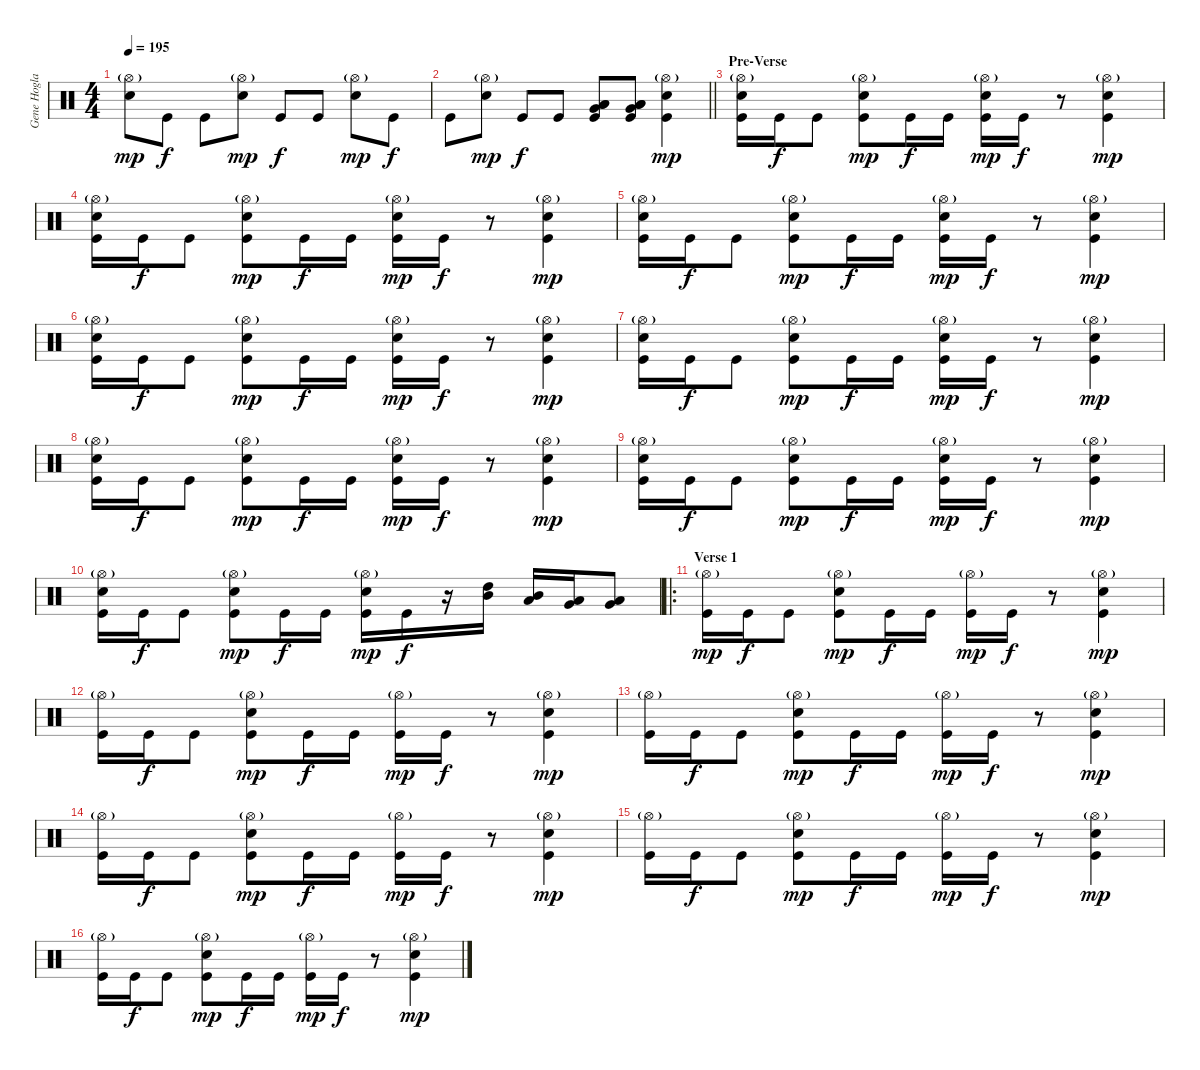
\track ("Gene Hoglan" "Gene Hogla") {instrument percussion}
\staff {score}
\articulation defaults
\ts (4 4)
\tempo 195
\clef neutral
\ks c
("Hi-Hat (open)"{g} "Electric Snare (hit)").8{dy mp} "Kick (hit)".8{dy f} "Kick (hit)".8 ("Hi-Hat (open)"{g} "Electric Snare (hit)").8{dy mp} "Kick (hit)".8{dy f} "Kick (hit)".8 ("Hi-Hat (open)"{g} "Electric Snare (hit)").8{dy mp} "Kick (hit)".8{dy f} |
\barLineRight lightlight "Kick (hit)".8
("Hi-Hat (open)"{g} "Electric Snare (hit)").8{dy mp} "Kick (hit)".8{dy f} "Kick (hit)".8 ("Low Tom (hit)" "Very Low Tom (hit)" "Low Floor Tom (hit)" "Kick (hit)").8 ("Low Tom (hit)" "Very Low Tom (hit)" "Low Floor Tom (hit)" "Kick (hit)").8 ("Hi-Hat (open)"{g} "Electric Snare (hit)" "Kick (hit)").4{dy mp} |
\section ("" "Pre-Verse")
("Hi-Hat (open)"{g} "Electric Snare (hit)" "Kick (hit)").16 "Kick (hit)".16{dy f} "Kick (hit)".8 ("Hi-Hat (open)"{g} "Electric Snare (hit)" "Kick (hit)").8{dy mp} "Kick (hit)".16{dy f} "Kick (hit)".16 ("Hi-Hat (open)"{g} "Electric Snare (hit)" "Kick (hit)").16{dy mp} "Kick (hit)".16{dy f} r.8 ("Hi-Hat (open)"{g} "Electric Snare (hit)" "Kick (hit)").4{dy mp} |
("Hi-Hat (open)"{g} "Electric Snare (hit)" "Kick (hit)").16 "Kick (hit)".16{dy f} "Kick (hit)".8 ("Hi-Hat (open)"{g} "Electric Snare (hit)" "Kick (hit)").8{dy mp} "Kick (hit)".16{dy f} "Kick (hit)".16 ("Hi-Hat (open)"{g} "Electric Snare (hit)" "Kick (hit)").16{dy mp} "Kick (hit)".16{dy f} r.8 ("Hi-Hat (open)"{g} "Electric Snare (hit)" "Kick (hit)").4{dy mp} |
("Hi-Hat (open)"{g} "Electric Snare (hit)" "Kick (hit)").16 "Kick (hit)".16{dy f} "Kick (hit)".8 ("Hi-Hat (open)"{g} "Electric Snare (hit)" "Kick (hit)").8{dy mp} "Kick (hit)".16{dy f} "Kick (hit)".16 ("Hi-Hat (open)"{g} "Electric Snare (hit)" "Kick (hit)").16{dy mp} "Kick (hit)".16{dy f} r.8 ("Hi-Hat (open)"{g} "Electric Snare (hit)" "Kick (hit)").4{dy mp} |
("Hi-Hat (open)"{g} "Electric Snare (hit)" "Kick (hit)").16 "Kick (hit)".16{dy f} "Kick (hit)".8 ("Hi-Hat (open)"{g} "Electric Snare (hit)" "Kick (hit)").8{dy mp} "Kick (hit)".16{dy f} "Kick (hit)".16 ("Hi-Hat (open)"{g} "Electric Snare (hit)" "Kick (hit)").16{dy mp} "Kick (hit)".16{dy f} r.8 ("Hi-Hat (open)"{g} "Electric Snare (hit)" "Kick (hit)").4{dy mp} |
("Hi-Hat (open)"{g} "Electric Snare (hit)" "Kick (hit)").16 "Kick (hit)".16{dy f} "Kick (hit)".8 ("Hi-Hat (open)"{g} "Electric Snare (hit)" "Kick (hit)").8{dy mp} "Kick (hit)".16{dy f} "Kick (hit)".16 ("Hi-Hat (open)"{g} "Electric Snare (hit)" "Kick (hit)").16{dy mp} "Kick (hit)".16{dy f} r.8 ("Hi-Hat (open)"{g} "Electric Snare (hit)" "Kick (hit)").4{dy mp} |
("Hi-Hat (open)"{g} "Electric Snare (hit)" "Kick (hit)").16 "Kick (hit)".16{dy f} "Kick (hit)".8 ("Hi-Hat (open)"{g} "Electric Snare (hit)" "Kick (hit)").8{dy mp} "Kick (hit)".16{dy f} "Kick (hit)".16 ("Hi-Hat (open)"{g} "Electric Snare (hit)" "Kick (hit)").16{dy mp} "Kick (hit)".16{dy f} r.8 ("Hi-Hat (open)"{g} "Electric Snare (hit)" "Kick (hit)").4{dy mp} |
("Hi-Hat (open)"{g} "Electric Snare (hit)" "Kick (hit)").16 "Kick (hit)".16{dy f} "Kick (hit)".8 ("Hi-Hat (open)"{g} "Electric Snare (hit)" "Kick (hit)").8{dy mp} "Kick (hit)".16{dy f} "Kick (hit)".16 ("Hi-Hat (open)"{g} "Electric Snare (hit)" "Kick (hit)").16{dy mp} "Kick (hit)".16{dy f} r.8 ("Hi-Hat (open)"{g} "Electric Snare (hit)" "Kick (hit)").4{dy mp} |
("Hi-Hat (open)"{g} "Electric Snare (hit)" "Kick (hit)").16 "Kick (hit)".16{dy f} "Kick (hit)".8 ("Hi-Hat (open)"{g} "Electric Snare (hit)" "Kick (hit)").8{dy mp} "Kick (hit)".16{dy f} "Kick (hit)".16 ("Hi-Hat (open)"{g} "Electric Snare (hit)" "Kick (hit)").16{dy mp} "Kick (hit)".16{dy f} r.16 ("Mid Tom (hit)" "High Tom (hit)").16 ("Low Tom (hit)" "Mid Tom (hit)").16 ("Very Low Tom (hit)" "Low Tom (hit)").16 ("Low Floor Tom (hit)" "Very Low Tom (hit)").8 |
\ro
\section ("" "Verse 1")
("Hi-Hat (open)"{g} "Kick (hit)").16{dy mp} "Kick (hit)".16{dy f} "Kick (hit)".8 ("Hi-Hat (open)"{g} "Electric Snare (hit)" "Kick (hit)").8{dy mp} "Kick (hit)".16{dy f} "Kick (hit)".16 ("Hi-Hat (open)"{g} "Kick (hit)").16{dy mp} "Kick (hit)".16{dy f} r.8 ("Hi-Hat (open)"{g} "Electric Snare (hit)" "Kick (hit)").4{dy mp} |
("Hi-Hat (open)"{g} "Kick (hit)").16 "Kick (hit)".16{dy f} "Kick (hit)".8 ("Hi-Hat (open)"{g} "Electric Snare (hit)" "Kick (hit)").8{dy mp} "Kick (hit)".16{dy f} "Kick (hit)".16 ("Hi-Hat (open)"{g} "Kick (hit)").16{dy mp} "Kick (hit)".16{dy f} r.8 ("Hi-Hat (open)"{g} "Electric Snare (hit)" "Kick (hit)").4{dy mp} |
("Hi-Hat (open)"{g} "Kick (hit)").16 "Kick (hit)".16{dy f} "Kick (hit)".8 ("Hi-Hat (open)"{g} "Electric Snare (hit)" "Kick (hit)").8{dy mp} "Kick (hit)".16{dy f} "Kick (hit)".16 ("Hi-Hat (open)"{g} "Kick (hit)").16{dy mp} "Kick (hit)".16{dy f} r.8 ("Hi-Hat (open)"{g} "Electric Snare (hit)" "Kick (hit)").4{dy mp} |
("Hi-Hat (open)"{g} "Kick (hit)").16 "Kick (hit)".16{dy f} "Kick (hit)".8 ("Hi-Hat (open)"{g} "Electric Snare (hit)" "Kick (hit)").8{dy mp} "Kick (hit)".16{dy f} "Kick (hit)".16 ("Hi-Hat (open)"{g} "Kick (hit)").16{dy mp} "Kick (hit)".16{dy f} r.8 ("Hi-Hat (open)"{g} "Electric Snare (hit)" "Kick (hit)").4{dy mp} |
("Hi-Hat (open)"{g} "Kick (hit)").16 "Kick (hit)".16{dy f} "Kick (hit)".8 ("Hi-Hat (open)"{g} "Electric Snare (hit)" "Kick (hit)").8{dy mp} "Kick (hit)".16{dy f} "Kick (hit)".16 ("Hi-Hat (open)"{g} "Kick (hit)").16{dy mp} "Kick (hit)".16{dy f} r.8 ("Hi-Hat (open)"{g} "Electric Snare (hit)" "Kick (hit)").4{dy mp} |
("Hi-Hat (open)"{g} "Kick (hit)").16 "Kick (hit)".16{dy f} "Kick (hit)".8 ("Hi-Hat (open)"{g} "Electric Snare (hit)" "Kick (hit)").8{dy mp} "Kick (hit)".16{dy f} "Kick (hit)".16 ("Hi-Hat (open)"{g} "Kick (hit)").16{dy mp} "Kick (hit)".16{dy f} r.8 ("Hi-Hat (open)"{g} "Electric Snare (hit)" "Kick (hit)").4{dy mp}
